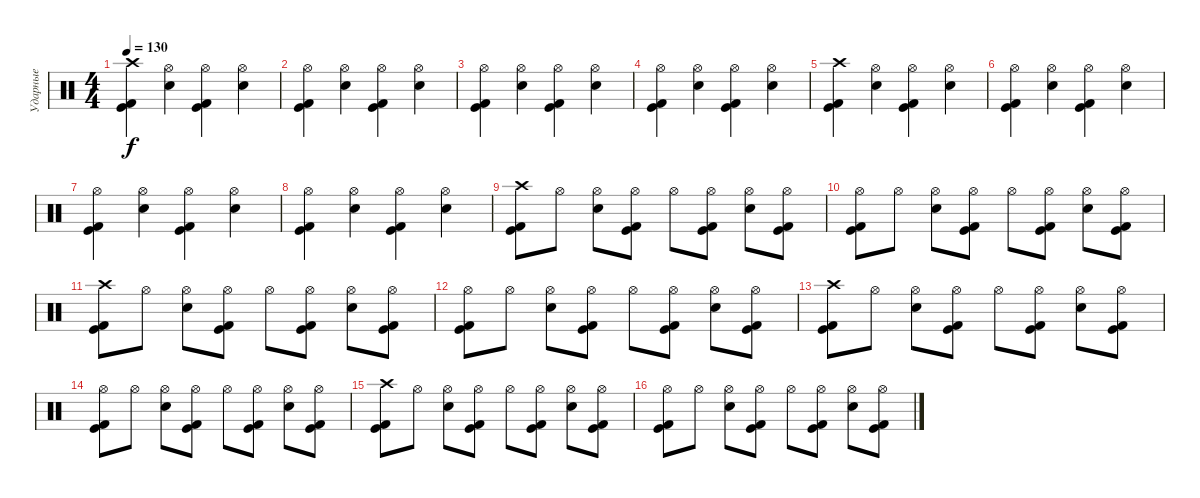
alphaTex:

\track ("Ударные" "Ударные") {instrument percussion}
\staff {score}
\articulation defaults
\ts (4 4)
\tempo 130
\clef neutral
\ks c
("Crash high (hit)" "Kick (hit) 2" "Kick (hit)").4{dy f} ("Hi-Hat (open)" "Electric Snare (hit)").4 ("Hi-Hat (open)" "Kick (hit) 2" "Kick (hit)").4 ("Hi-Hat (open)" "Electric Snare (hit)").4 |
("Hi-Hat (open)" "Kick (hit) 2" "Kick (hit)").4 ("Hi-Hat (open)" "Electric Snare (hit)").4 ("Hi-Hat (open)" "Kick (hit) 2" "Kick (hit)").4 ("Hi-Hat (open)" "Electric Snare (hit)").4 |
("Hi-Hat (open)" "Kick (hit) 2" "Kick (hit)").4 ("Hi-Hat (open)" "Electric Snare (hit)").4 ("Hi-Hat (open)" "Kick (hit) 2" "Kick (hit)").4 ("Hi-Hat (open)" "Electric Snare (hit)").4 |
("Hi-Hat (open)" "Kick (hit) 2" "Kick (hit)").4 ("Hi-Hat (open)" "Electric Snare (hit)").4 ("Hi-Hat (open)" "Kick (hit) 2" "Kick (hit)").4 ("Hi-Hat (open)" "Electric Snare (hit)").4 |
("Crash high (hit)" "Kick (hit) 2" "Kick (hit)").4 ("Hi-Hat (open)" "Electric Snare (hit)").4 ("Hi-Hat (open)" "Kick (hit) 2" "Kick (hit)").4 ("Hi-Hat (open)" "Electric Snare (hit)").4 |
("Hi-Hat (open)" "Kick (hit) 2" "Kick (hit)").4 ("Hi-Hat (open)" "Electric Snare (hit)").4 ("Hi-Hat (open)" "Kick (hit) 2" "Kick (hit)").4 ("Hi-Hat (open)" "Electric Snare (hit)").4 |
("Hi-Hat (open)" "Kick (hit) 2" "Kick (hit)").4 ("Hi-Hat (open)" "Electric Snare (hit)").4 ("Hi-Hat (open)" "Kick (hit) 2" "Kick (hit)").4 ("Hi-Hat (open)" "Electric Snare (hit)").4 |
("Hi-Hat (open)" "Kick (hit) 2" "Kick (hit)").4 ("Hi-Hat (open)" "Electric Snare (hit)").4 ("Hi-Hat (open)" "Kick (hit) 2" "Kick (hit)").4 ("Hi-Hat (open)" "Electric Snare (hit)").4 |
("Crash high (hit)" "Kick (hit) 2" "Kick (hit)").8 "Hi-Hat (open)".8 ("Hi-Hat (open)" "Electric Snare (hit)").8 ("Hi-Hat (open)" "Kick (hit) 2" "Kick (hit)").8 "Hi-Hat (open)".8 ("Hi-Hat (open)" "Kick (hit) 2" "Kick (hit)").8 ("Hi-Hat (open)" "Electric Snare (hit)").8 ("Hi-Hat (open)" "Kick (hit) 2" "Kick (hit)").8 |
("Hi-Hat (open)" "Kick (hit) 2" "Kick (hit)").8 "Hi-Hat (open)".8 ("Hi-Hat (open)" "Electric Snare (hit)").8 ("Hi-Hat (open)" "Kick (hit) 2" "Kick (hit)").8 "Hi-Hat (open)".8 ("Hi-Hat (open)" "Kick (hit) 2" "Kick (hit)").8 ("Hi-Hat (open)" "Electric Snare (hit)").8 ("Hi-Hat (open)" "Kick (hit) 2" "Kick (hit)").8 |
("Crash high (hit)" "Kick (hit) 2" "Kick (hit)").8 "Hi-Hat (open)".8 ("Hi-Hat (open)" "Electric Snare (hit)").8 ("Hi-Hat (open)" "Kick (hit) 2" "Kick (hit)").8 "Hi-Hat (open)".8 ("Hi-Hat (open)" "Kick (hit) 2" "Kick (hit)").8 ("Hi-Hat (open)" "Electric Snare (hit)").8 ("Hi-Hat (open)" "Kick (hit) 2" "Kick (hit)").8 |
("Hi-Hat (open)" "Kick (hit) 2" "Kick (hit)").8 "Hi-Hat (open)".8 ("Hi-Hat (open)" "Electric Snare (hit)").8 ("Hi-Hat (open)" "Kick (hit) 2" "Kick (hit)").8 "Hi-Hat (open)".8 ("Hi-Hat (open)" "Kick (hit) 2" "Kick (hit)").8 ("Hi-Hat (open)" "Electric Snare (hit)").8 ("Hi-Hat (open)" "Kick (hit) 2" "Kick (hit)").8 |
("Crash high (hit)" "Kick (hit) 2" "Kick (hit)").8 "Hi-Hat (open)".8 ("Hi-Hat (open)" "Electric Snare (hit)").8 ("Hi-Hat (open)" "Kick (hit) 2" "Kick (hit)").8 "Hi-Hat (open)".8 ("Hi-Hat (open)" "Kick (hit) 2" "Kick (hit)").8 ("Hi-Hat (open)" "Electric Snare (hit)").8 ("Hi-Hat (open)" "Kick (hit) 2" "Kick (hit)").8 |
("Hi-Hat (open)" "Kick (hit) 2" "Kick (hit)").8 "Hi-Hat (open)".8 ("Hi-Hat (open)" "Electric Snare (hit)").8 ("Hi-Hat (open)" "Kick (hit) 2" "Kick (hit)").8 "Hi-Hat (open)".8 ("Hi-Hat (open)" "Kick (hit) 2" "Kick (hit)").8 ("Hi-Hat (open)" "Electric Snare (hit)").8 ("Hi-Hat (open)" "Kick (hit) 2" "Kick (hit)").8 |
("Crash high (hit)" "Kick (hit) 2" "Kick (hit)").8 "Hi-Hat (open)".8 ("Hi-Hat (open)" "Electric Snare (hit)").8 ("Hi-Hat (open)" "Kick (hit) 2" "Kick (hit)").8 "Hi-Hat (open)".8 ("Hi-Hat (open)" "Kick (hit) 2" "Kick (hit)").8 ("Hi-Hat (open)" "Electric Snare (hit)").8 ("Hi-Hat (open)" "Kick (hit) 2" "Kick (hit)").8 |
("Hi-Hat (open)" "Kick (hit) 2" "Kick (hit)").8 "Hi-Hat (open)".8 ("Hi-Hat (open)" "Electric Snare (hit)").8 ("Hi-Hat (open)" "Kick (hit) 2" "Kick (hit)").8 "Hi-Hat (open)".8 ("Hi-Hat (open)" "Kick (hit) 2" "Kick (hit)").8 ("Hi-Hat (open)" "Electric Snare (hit)").8 ("Hi-Hat (open)" "Kick (hit) 2" "Kick (hit)").8
